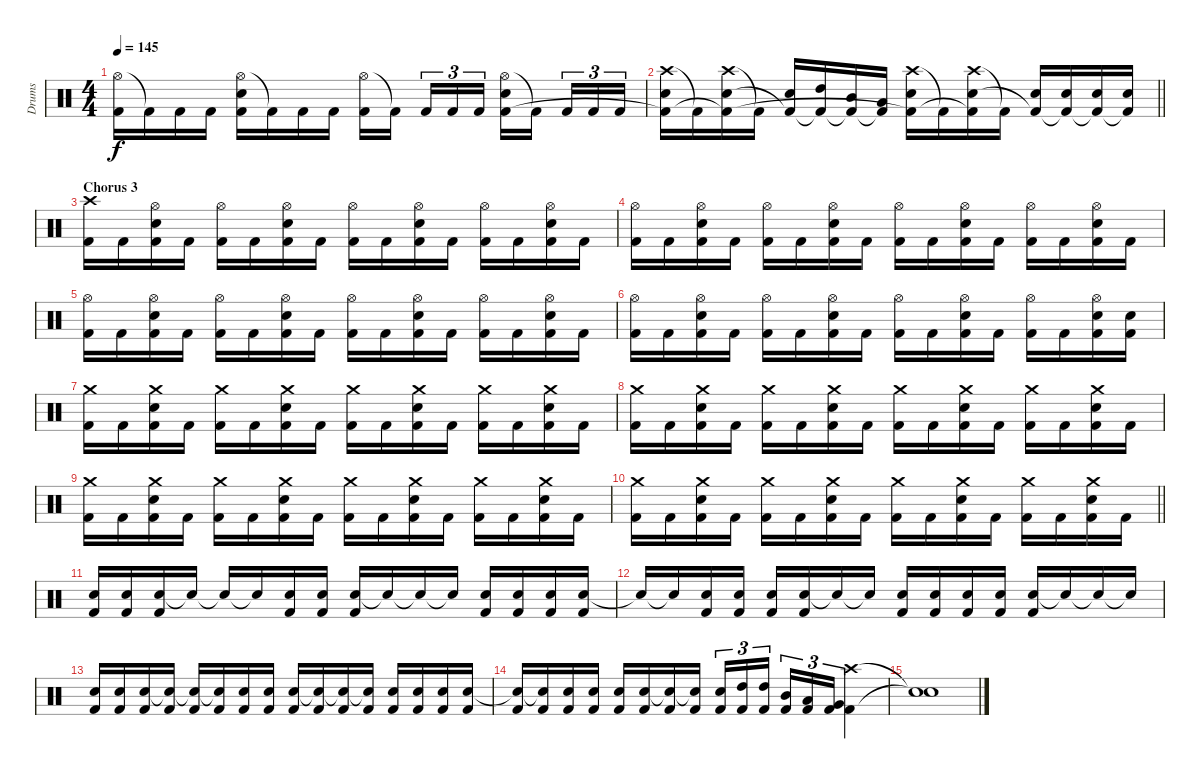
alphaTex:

\track ("Drums" "Drums") {instrument percussion}
\staff {score}
\articulation defaults
\ts (4 4)
\tempo 145
\clef neutral
\ks c
("Hi-Hat (open)" "Kick (hit) 2").16{dy f} "Kick (hit) 2"{t}.16 "Kick (hit) 2".16 "Kick (hit) 2".16 ("Hi-Hat (open)" "Electric Snare (hit)" "Kick (hit) 2").16 "Kick (hit) 2"{t}.16 "Kick (hit) 2".16 "Kick (hit) 2".16 ("Hi-Hat (open)" "Kick (hit) 2").16 "Kick (hit) 2"{t}.16{beam splitsecondary} "Kick (hit) 2".16{tu (3 2)} "Kick (hit) 2".16{tu (3 2)} "Kick (hit) 2".16{tu (3 2)} ("Hi-Hat (open)" "Electric Snare (hit)" "Kick (hit) 2").16 "Kick (hit) 2"{t}.16{beam splitsecondary} "Kick (hit) 2".16{tu (3 2)} "Kick (hit) 2".16{tu (3 2)} "Kick (hit) 2".16{tu (3 2)} |
\barLineRight lightlight
("Crash high (hit)" "Electric Snare (hit)" "Kick (hit) 2"{t}).16 "Kick (hit) 2"{t}.16 ("Crash high (hit)" "Electric Snare (hit)" "Kick (hit) 2"{t}).16 "Kick (hit) 2"{t}.16 ("Electric Snare (hit)" "Kick (hit) 2"{t}).16 ("High Tom (hit)" "Kick (hit) 2"{t}).16 ("Mid Tom (hit)" "Kick (hit) 2"{t}).16 ("Low Tom (hit)" "Kick (hit) 2"{t}).16 ("Crash high (hit)" "Electric Snare (hit)" "Kick (hit) 2"{t}).16 "Kick (hit) 2"{t}.16 ("Crash high (hit)" "Electric Snare (hit)" "Kick (hit) 2"{t}).16 "Kick (hit) 2"{t}.16 ("Electric Snare (hit)" "Kick (hit) 2"{t}).16 ("Electric Snare (hit)" "Kick (hit) 2"{t}).16 ("Electric Snare (hit)" "Kick (hit) 2"{t}).16 ("Electric Snare (hit)" "Kick (hit) 2"{t}).16 |
\section ("" "Chorus 3")
("Crash high (hit)" "Kick (hit) 2").16 "Kick (hit) 2".16 ("Hi-Hat (open)" "Electric Snare (hit)" "Kick (hit) 2").16 "Kick (hit) 2".16 ("Hi-Hat (open)" "Kick (hit) 2").16 "Kick (hit) 2".16 ("Hi-Hat (open)" "Electric Snare (hit)" "Kick (hit) 2").16 "Kick (hit) 2".16 ("Hi-Hat (open)" "Kick (hit) 2").16 "Kick (hit) 2".16 ("Hi-Hat (open)" "Electric Snare (hit)" "Kick (hit) 2").16 "Kick (hit) 2".16 ("Hi-Hat (open)" "Kick (hit) 2").16 "Kick (hit) 2".16 ("Hi-Hat (open)" "Electric Snare (hit)" "Kick (hit) 2").16 "Kick (hit) 2".16 |
("Hi-Hat (open)" "Kick (hit) 2").16 "Kick (hit) 2".16 ("Hi-Hat (open)" "Electric Snare (hit)" "Kick (hit) 2").16 "Kick (hit) 2".16 ("Hi-Hat (open)" "Kick (hit) 2").16 "Kick (hit) 2".16 ("Hi-Hat (open)" "Electric Snare (hit)" "Kick (hit) 2").16 "Kick (hit) 2".16 ("Hi-Hat (open)" "Kick (hit) 2").16 "Kick (hit) 2".16 ("Hi-Hat (open)" "Electric Snare (hit)" "Kick (hit) 2").16 "Kick (hit) 2".16 ("Hi-Hat (open)" "Kick (hit) 2").16 "Kick (hit) 2".16 ("Hi-Hat (open)" "Electric Snare (hit)" "Kick (hit) 2").16 "Kick (hit) 2".16 |
("Hi-Hat (open)" "Kick (hit) 2").16 "Kick (hit) 2".16 ("Hi-Hat (open)" "Electric Snare (hit)" "Kick (hit) 2").16 "Kick (hit) 2".16 ("Hi-Hat (open)" "Kick (hit) 2").16 "Kick (hit) 2".16 ("Hi-Hat (open)" "Electric Snare (hit)" "Kick (hit) 2").16 "Kick (hit) 2".16 ("Hi-Hat (open)" "Kick (hit) 2").16 "Kick (hit) 2".16 ("Hi-Hat (open)" "Electric Snare (hit)" "Kick (hit) 2").16 "Kick (hit) 2".16 ("Hi-Hat (open)" "Kick (hit) 2").16 "Kick (hit) 2".16 ("Hi-Hat (open)" "Electric Snare (hit)" "Kick (hit) 2").16 "Kick (hit) 2".16 |
("Hi-Hat (open)" "Kick (hit) 2").16 "Kick (hit) 2".16 ("Hi-Hat (open)" "Electric Snare (hit)" "Kick (hit) 2").16 "Kick (hit) 2".16 ("Hi-Hat (open)" "Kick (hit) 2").16 "Kick (hit) 2".16 ("Hi-Hat (open)" "Electric Snare (hit)" "Kick (hit) 2").16 "Kick (hit) 2".16 ("Hi-Hat (open)" "Kick (hit) 2").16 "Kick (hit) 2".16 ("Hi-Hat (open)" "Electric Snare (hit)" "Kick (hit) 2").16 "Kick (hit) 2".16 ("Hi-Hat (open)" "Kick (hit) 2").16 "Kick (hit) 2".16 ("Hi-Hat (open)" "Electric Snare (hit)" "Kick (hit) 2").16 ("Electric Snare (hit)" "Kick (hit) 2").16 |
("Crash medium (hit)" "Kick (hit) 2").16 "Kick (hit) 2".16 ("Crash medium (hit)" "Electric Snare (hit)" "Kick (hit) 2").16 "Kick (hit) 2".16 ("Crash medium (hit)" "Kick (hit) 2").16 "Kick (hit) 2".16 ("Crash medium (hit)" "Electric Snare (hit)" "Kick (hit) 2").16 "Kick (hit) 2".16 ("Crash medium (hit)" "Kick (hit) 2").16 "Kick (hit) 2".16 ("Crash medium (hit)" "Electric Snare (hit)" "Kick (hit) 2").16 "Kick (hit) 2".16 ("Crash medium (hit)" "Kick (hit) 2").16 "Kick (hit) 2".16 ("Crash medium (hit)" "Electric Snare (hit)" "Kick (hit) 2").16 "Kick (hit) 2".16 |
("Crash medium (hit)" "Kick (hit) 2").16 "Kick (hit) 2".16 ("Crash medium (hit)" "Electric Snare (hit)" "Kick (hit) 2").16 "Kick (hit) 2".16 ("Crash medium (hit)" "Kick (hit) 2").16 "Kick (hit) 2".16 ("Crash medium (hit)" "Electric Snare (hit)" "Kick (hit) 2").16 "Kick (hit) 2".16 ("Crash medium (hit)" "Kick (hit) 2").16 "Kick (hit) 2".16 ("Crash medium (hit)" "Electric Snare (hit)" "Kick (hit) 2").16 "Kick (hit) 2".16 ("Crash medium (hit)" "Kick (hit) 2").16 "Kick (hit) 2".16 ("Crash medium (hit)" "Electric Snare (hit)" "Kick (hit) 2").16 "Kick (hit) 2".16 |
("Crash medium (hit)" "Kick (hit) 2").16 "Kick (hit) 2".16 ("Crash medium (hit)" "Electric Snare (hit)" "Kick (hit) 2").16 "Kick (hit) 2".16 ("Crash medium (hit)" "Kick (hit) 2").16 "Kick (hit) 2".16 ("Crash medium (hit)" "Electric Snare (hit)" "Kick (hit) 2").16 "Kick (hit) 2".16 ("Crash medium (hit)" "Kick (hit) 2").16 "Kick (hit) 2".16 ("Crash medium (hit)" "Electric Snare (hit)" "Kick (hit) 2").16 "Kick (hit) 2".16 ("Crash medium (hit)" "Kick (hit) 2").16 "Kick (hit) 2".16 ("Crash medium (hit)" "Electric Snare (hit)" "Kick (hit) 2").16 "Kick (hit) 2".16 |
\barLineRight lightlight
("Crash medium (hit)" "Kick (hit) 2").16 "Kick (hit) 2".16 ("Crash medium (hit)" "Electric Snare (hit)" "Kick (hit) 2").16 "Kick (hit) 2".16 ("Crash medium (hit)" "Kick (hit) 2").16 "Kick (hit) 2".16 ("Crash medium (hit)" "Electric Snare (hit)" "Kick (hit) 2").16 "Kick (hit) 2".16 ("Crash medium (hit)" "Kick (hit) 2").16 "Kick (hit) 2".16 ("Crash medium (hit)" "Electric Snare (hit)" "Kick (hit) 2").16 "Kick (hit) 2".16 ("Crash medium (hit)" "Kick (hit) 2").16 "Kick (hit) 2".16 ("Crash medium (hit)" "Electric Snare (hit)" "Kick (hit) 2").16 "Kick (hit) 2".16 |
("Electric Snare (hit)" "Kick (hit) 2").16 ("Electric Snare (hit)" "Kick (hit) 2").16 ("Electric Snare (hit)" "Kick (hit) 2").16 "Snare (hit)"{t}.16 "Electric Snare (hit)"{t}.16 "Electric Snare (hit)"{t}.16 ("Electric Snare (hit)" "Kick (hit) 2").16 ("Electric Snare (hit)" "Kick (hit) 2").16 ("Electric Snare (hit)" "Kick (hit) 2").16 "Snare (hit)"{t}.16 "Snare (hit)"{t}.16 "Snare (hit)"{t}.16 ("Electric Snare (hit)" "Kick (hit) 2").16 ("Electric Snare (hit)" "Kick (hit) 2").16 ("Electric Snare (hit)" "Kick (hit) 2").16 ("Electric Snare (hit)" "Kick (hit) 2").16 |
"Snare (hit)"{t}.16 "Snare (hit)"{t}.16 ("Electric Snare (hit)" "Kick (hit) 2").16 ("Electric Snare (hit)" "Kick (hit) 2").16 ("Electric Snare (hit)" "Kick (hit) 2").16 ("Electric Snare (hit)" "Kick (hit) 2").16 "Electric Snare (hit)"{t}.16 "Snare (hit)"{t}.16 ("Electric Snare (hit)" "Kick (hit) 2").16 ("Electric Snare (hit)" "Kick (hit) 2").16 ("Electric Snare (hit)" "Kick (hit) 2").16 ("Electric Snare (hit)" "Kick (hit) 2").16 ("Electric Snare (hit)" "Kick (hit) 2").16 "Electric Snare (hit)"{t}.16 "Snare (hit)"{t}.16 "Electric Snare (hit)"{t}.16 |
("Electric Snare (hit)" "Kick (hit) 2").16 ("Electric Snare (hit)" "Kick (hit) 2").16 ("Electric Snare (hit)" "Kick (hit) 2").16 ("Snare (hit)"{t} "Kick (hit) 2").16 ("Electric Snare (hit)"{t} "Kick (hit) 2").16 ("Electric Snare (hit)"{t} "Kick (hit) 2").16 ("Electric Snare (hit)" "Kick (hit) 2").16 ("Electric Snare (hit)" "Kick (hit) 2").16 ("Electric Snare (hit)" "Kick (hit) 2").16 ("Snare (hit)"{t} "Kick (hit) 2").16 ("Snare (hit)"{t} "Kick (hit) 2").16 ("Snare (hit)"{t} "Kick (hit) 2").16 ("Electric Snare (hit)" "Kick (hit) 2").16 ("Electric Snare (hit)" "Kick (hit) 2").16 ("Electric Snare (hit)" "Kick (hit) 2").16 ("Electric Snare (hit)" "Kick (hit) 2").16 |
("Snare (hit)"{t} "Kick (hit) 2").16 ("Snare (hit)"{t} "Kick (hit) 2").16 ("Electric Snare (hit)" "Kick (hit) 2").16 ("Electric Snare (hit)" "Kick (hit) 2").16 ("Electric Snare (hit)" "Kick (hit) 2").16 ("Electric Snare (hit)" "Kick (hit) 2").16 ("Electric Snare (hit)"{t} "Kick (hit) 2").16 ("Snare (hit)"{t} "Kick (hit) 2").16 ("Electric Snare (hit)" "Kick (hit) 2").16{tu (3 2)} ("High Tom (hit)" "Kick (hit) 2").16{tu (3 2)} ("High Tom (hit)" "Kick (hit) 2").16{tu (3 2) beam splitsecondary} ("Mid Tom (hit)" "Kick (hit) 2").16{tu (3 2)} ("Low Tom (hit)" "Kick (hit) 2").16{tu (3 2)} ("Very Low Tom (hit)" "Kick (hit) 2").16{tu (3 2)} ("Crash high (hit)" "Kick (hit) 2").4 |
("Snare (hit)"{t} "Snare (hit)"{t}).1
